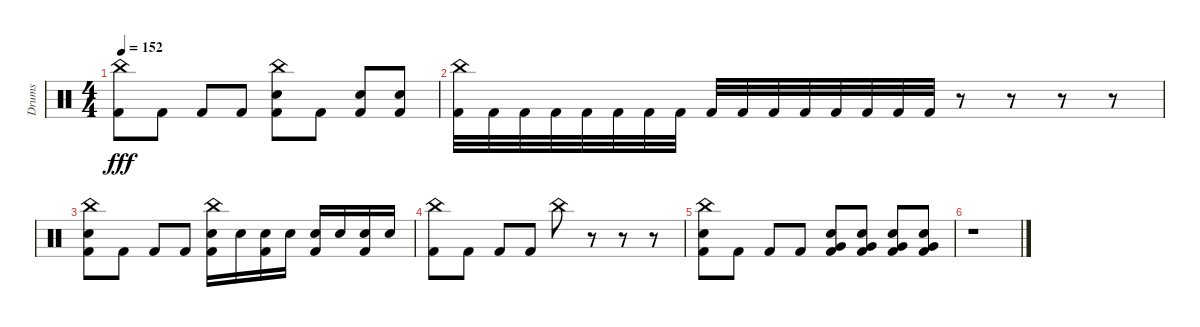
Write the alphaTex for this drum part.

\track ("Drums" "Drums") {instrument percussion}
\staff {score}
\articulation defaults
\ts (4 4)
\tempo 152
\clef neutral
\ks c
("China (hit)" "Kick (hit) 2").8{dy fff} "Kick (hit) 2".8 "Kick (hit) 2".8 "Kick (hit) 2".8 ("China (hit)" "Snare (hit) 2" "Kick (hit) 2").8 "Kick (hit) 2".8 ("Snare (hit) 2" "Kick (hit) 2").8 ("Snare (hit) 2" "Kick (hit) 2").8 |
("China (hit)" "Kick (hit) 2").32 "Kick (hit) 2".32 "Kick (hit) 2".32 "Kick (hit) 2".32 "Kick (hit) 2".32 "Kick (hit) 2".32 "Kick (hit) 2".32 "Kick (hit) 2".32 "Kick (hit) 2".32 "Kick (hit) 2".32 "Kick (hit) 2".32 "Kick (hit) 2".32 "Kick (hit) 2".32 "Kick (hit) 2".32 "Kick (hit) 2".32 "Kick (hit) 2".32 r.8 r.8 r.8 r.8 |
("China (hit)" "Snare (hit) 2" "Kick (hit) 2").8 "Kick (hit) 2".8 "Kick (hit) 2".8 "Kick (hit) 2".8 ("China (hit)" "Snare (hit) 2" "Kick (hit) 2").16 "Snare (hit) 2".16 ("Snare (hit) 2" "Kick (hit) 2").16 "Snare (hit) 2".16 ("Snare (hit) 2" "Kick (hit) 2").16 "Snare (hit) 2".16 ("Snare (hit) 2" "Kick (hit) 2").16 "Snare (hit) 2".16 |
("China (hit)" "Kick (hit) 2").8 "Kick (hit) 2".8 "Kick (hit) 2".8 "Kick (hit) 2".8 "China (hit)".8 r.8 r.8 r.8 |
("China (hit)" "Snare (hit) 2" "Kick (hit) 2").8 "Kick (hit) 2".8 "Kick (hit) 2".8 "Kick (hit) 2".8 ("Very Low Tom (hit)" "Snare (hit) 2" "Kick (hit) 2").8 ("Very Low Tom (hit)" "Snare (hit) 2" "Kick (hit) 2").8 ("Very Low Tom (hit)" "Snare (hit) 2" "Kick (hit) 2").8 ("Very Low Tom (hit)" "Snare (hit) 2" "Kick (hit) 2").8 |
r.1
